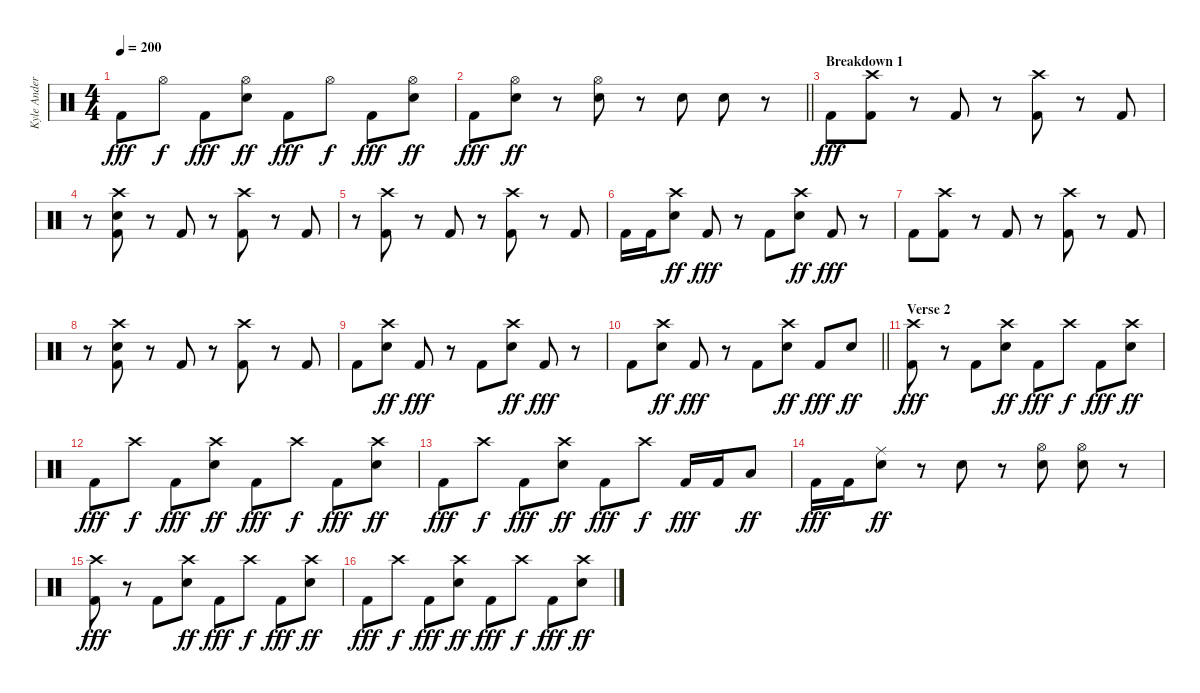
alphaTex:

\track ("Kyle Anderson" "Kyle Ander") {instrument percussion}
\staff {score}
\articulation defaults
\ts (4 4)
\tempo 200
\clef neutral
\ks c "Kick (hit) 2".8{dy fff} "Hi-Hat (open)".8{dy f} "Kick (hit) 2".8{dy fff}
("Hi-Hat (open)" "Electric Snare (hit)").8{dy ff} "Kick (hit) 2".8{dy fff} "Hi-Hat (open)".8{dy f} "Kick (hit) 2".8{dy fff} ("Hi-Hat (open)" "Electric Snare (hit)").8{dy ff} |
\barLineRight lightlight "Kick (hit) 2".8{dy fff}
("Hi-Hat (open)" "Electric Snare (hit)").8{dy ff} r.8 ("Hi-Hat (open)" "Electric Snare (hit)").8 r.8 "Electric Snare (hit)".8 "Electric Snare (hit)".8 r.8 |
\section ("" "Breakdown 1")
"Kick (hit) 2".8{dy fff} ("Crash high (hit)" "Kick (hit) 2").8 r.8 "Kick (hit) 2".8 r.8 ("Crash high (hit)" "Kick (hit) 2").8 r.8 "Kick (hit) 2".8 |
r.8 ("Crash high (hit)" "Electric Snare (hit)" "Kick (hit) 2").8 r.8 "Kick (hit) 2".8 r.8 ("Crash high (hit)" "Kick (hit) 2").8 r.8 "Kick (hit) 2".8 |
r.8 ("Crash high (hit)" "Kick (hit) 2").8 r.8 "Kick (hit) 2".8 r.8 ("Crash high (hit)" "Kick (hit) 2").8 r.8 "Kick (hit) 2".8 |
"Kick (hit) 2".16 "Kick (hit) 2".16 ("Crash high (hit)" "Electric Snare (hit)").8{dy ff} "Kick (hit) 2".8{dy fff} r.8 "Kick (hit) 2".8 ("Crash high (hit)" "Electric Snare (hit)").8{dy ff} "Kick (hit) 2".8{dy fff} r.8 |
"Kick (hit) 2".8 ("Crash high (hit)" "Kick (hit) 2").8 r.8 "Kick (hit) 2".8 r.8 ("Crash high (hit)" "Kick (hit) 2").8 r.8 "Kick (hit) 2".8 |
r.8 ("Crash high (hit)" "Electric Snare (hit)" "Kick (hit) 2").8 r.8 "Kick (hit) 2".8 r.8 ("Crash high (hit)" "Kick (hit) 2").8 r.8 "Kick (hit) 2".8 |
"Kick (hit) 2".8 ("Crash high (hit)" "Electric Snare (hit)").8{dy ff} "Kick (hit) 2".8{dy fff} r.8 "Kick (hit) 2".8 ("Crash high (hit)" "Electric Snare (hit)").8{dy ff} "Kick (hit) 2".8{dy fff} r.8 |
\barLineRight lightlight "Kick (hit) 2".8
("Crash high (hit)" "Electric Snare (hit)").8{dy ff} "Kick (hit) 2".8{dy fff} r.8 "Kick (hit) 2".8 ("Crash high (hit)" "Electric Snare (hit)").8{dy ff} "Kick (hit) 2".8{dy fff} "Electric Snare (hit)".8{dy ff} |
\section ("" "Verse 2")
("Crash high (hit)" "Kick (hit) 2").8{dy fff} r.8 "Kick (hit) 2".8 ("Crash high (hit)" "Electric Snare (hit)").8{dy ff} "Kick (hit) 2".8{dy fff} "Crash high (hit)".8{dy f} "Kick (hit) 2".8{dy fff} ("Crash high (hit)" "Electric Snare (hit)").8{dy ff} |
"Kick (hit) 2".8{dy fff} "Crash high (hit)".8{dy f} "Kick (hit) 2".8{dy fff} ("Crash high (hit)" "Electric Snare (hit)").8{dy ff} "Kick (hit) 2".8{dy fff} "Crash high (hit)".8{dy f} "Kick (hit) 2".8{dy fff} ("Crash high (hit)" "Electric Snare (hit)").8{dy ff} |
"Kick (hit) 2".8{dy fff} "Crash high (hit)".8{dy f} "Kick (hit) 2".8{dy fff} ("Crash high (hit)" "Electric Snare (hit)").8{dy ff} "Kick (hit) 2".8{dy fff} "Crash high (hit)".8{dy f} "Kick (hit) 2".16{dy fff} "Kick (hit) 2".16 "Low Floor Tom (hit)".8{dy ff} |
"Kick (hit) 2".16{dy fff} "Kick (hit) 2".16 ("Ride (middle)" "Electric Snare (hit)").8{dy ff} r.8 "Electric Snare (hit)".8 r.8 ("Hi-Hat (open)" "Electric Snare (hit)").8 ("Hi-Hat (open)" "Electric Snare (hit)").8 r.8 |
("Crash high (hit)" "Kick (hit) 2").8{dy fff} r.8 "Kick (hit) 2".8 ("Crash high (hit)" "Electric Snare (hit)").8{dy ff} "Kick (hit) 2".8{dy fff} "Crash high (hit)".8{dy f} "Kick (hit) 2".8{dy fff} ("Crash high (hit)" "Electric Snare (hit)").8{dy ff} |
"Kick (hit) 2".8{dy fff} "Crash high (hit)".8{dy f} "Kick (hit) 2".8{dy fff} ("Crash high (hit)" "Electric Snare (hit)").8{dy ff} "Kick (hit) 2".8{dy fff} "Crash high (hit)".8{dy f} "Kick (hit) 2".8{dy fff} ("Crash high (hit)" "Electric Snare (hit)").8{dy ff}
